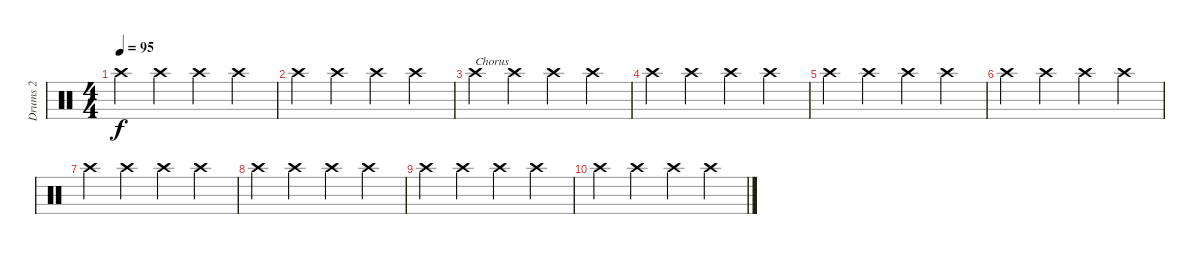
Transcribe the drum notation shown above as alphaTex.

\track ("Drums 2" "Drums 2") {instrument percussion}
\staff {score}
\articulation defaults
\ts (4 4)
\tempo 95
\clef neutral
\ks c "Crash high (hit)".4{dy f} "Crash high (hit)".4 "Crash high (hit)".4 "Crash high (hit)".4
|
"Crash high (hit)".4 "Crash high (hit)".4 "Crash high (hit)".4 "Crash high (hit)".4 |
"Crash high (hit)".4{txt "Chorus"} "Crash high (hit)".4 "Crash high (hit)".4 "Crash high (hit)".4 |
"Crash high (hit)".4 "Crash high (hit)".4 "Crash high (hit)".4 "Crash high (hit)".4 |
"Crash high (hit)".4 "Crash high (hit)".4 "Crash high (hit)".4 "Crash high (hit)".4 |
"Crash high (hit)".4 "Crash high (hit)".4 "Crash high (hit)".4 "Crash high (hit)".4 |
"Crash high (hit)".4 "Crash high (hit)".4 "Crash high (hit)".4 "Crash high (hit)".4 |
"Crash high (hit)".4 "Crash high (hit)".4 "Crash high (hit)".4 "Crash high (hit)".4 |
"Crash high (hit)".4 "Crash high (hit)".4 "Crash high (hit)".4 "Crash high (hit)".4 |
"Crash high (hit)".4 "Crash high (hit)".4 "Crash high (hit)".4 "Crash high (hit)".4
